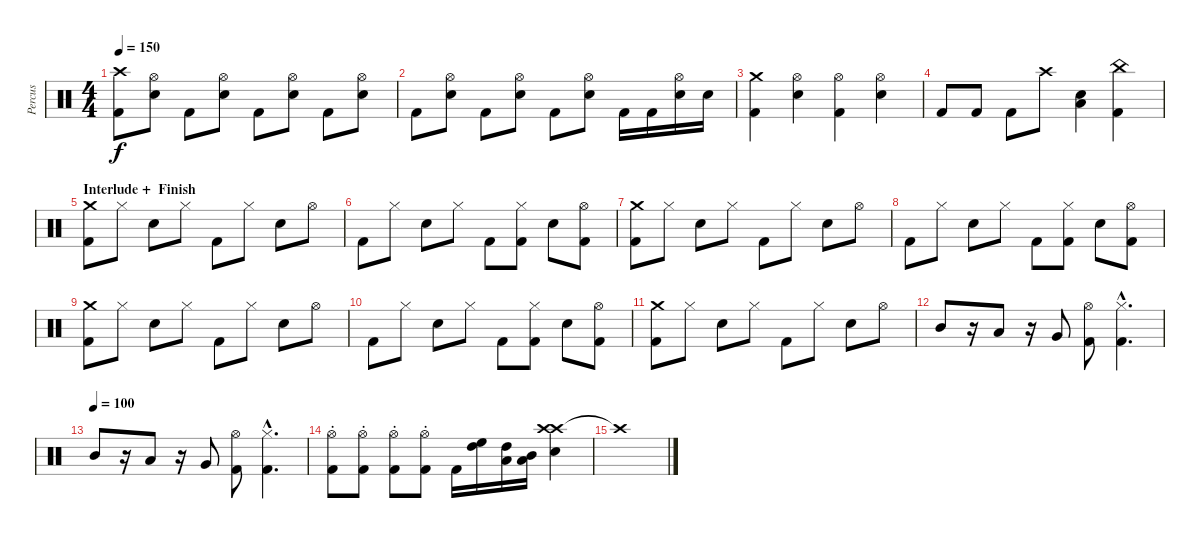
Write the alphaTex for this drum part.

\track ("Percus" "Percus") {instrument percussion}
\staff {score}
\articulation defaults
\ts (4 4)
\tempo 150
\clef neutral
\ks c
("Crash high (hit)" "Kick (hit) 2").8{dy f} ("Hi-Hat (open)" "Snare (hit) 2").8 "Kick (hit) 2".8 ("Hi-Hat (open)" "Snare (hit) 2").8 "Kick (hit) 2".8 ("Hi-Hat (open)" "Snare (hit) 2").8 "Kick (hit) 2".8 ("Hi-Hat (open)" "Snare (hit) 2").8 |
"Kick (hit) 2".8 ("Hi-Hat (open)" "Snare (hit) 2").8 "Kick (hit) 2".8 ("Hi-Hat (open)" "Snare (hit) 2").8 "Kick (hit) 2".8 ("Hi-Hat (open)" "Snare (hit) 2").8 "Kick (hit) 2".16 "Kick (hit) 2".16 ("Hi-Hat (open)" "Snare (hit) 2").16 "Snare (hit) 2".16 |
("Crash medium (hit)" "Kick (hit) 2").4 ("Hi-Hat (open)" "Snare (hit) 2").4 ("Hi-Hat (open)" "Kick (hit) 2").4 ("Hi-Hat (open)" "Snare (hit) 2").4 |
"Kick (hit) 2".8 "Kick (hit) 2".8 "Kick (hit) 2".8 "Crash high (hit)".8 ("Snare (hit) 2" "Low Floor Tom (hit)").4 ("Kick (hit) 2" "China (hit)").4 |
\section ("" "Interlude +  Finish")
("Crash medium (hit)" "Kick (hit) 2").8 "Hi-Hat (closed)".8 "Snare (hit) 2".8 "Hi-Hat (closed)".8 "Kick (hit) 2".8 "Hi-Hat (closed)".8 "Snare (hit) 2".8 "Hi-Hat (open)".8 |
"Kick (hit) 2".8 "Hi-Hat (closed)".8 "Snare (hit) 2".8 "Hi-Hat (closed)".8 "Kick (hit) 2".8 ("Hi-Hat (closed)" "Kick (hit) 2").8 "Snare (hit) 2".8 ("Hi-Hat (open)" "Kick (hit) 2").8 |
("Crash medium (hit)" "Kick (hit) 2").8 "Hi-Hat (closed)".8 "Snare (hit) 2".8 "Hi-Hat (closed)".8 "Kick (hit) 2".8 "Hi-Hat (closed)".8 "Snare (hit) 2".8 "Hi-Hat (open)".8 |
"Kick (hit) 2".8 "Hi-Hat (closed)".8 "Snare (hit) 2".8 "Hi-Hat (closed)".8 "Kick (hit) 2".8 ("Hi-Hat (closed)" "Kick (hit) 2").8 "Snare (hit) 2".8 ("Hi-Hat (open)" "Kick (hit) 2").8 |
("Crash medium (hit)" "Kick (hit) 2").8 "Hi-Hat (closed)".8 "Snare (hit) 2".8 "Hi-Hat (closed)".8 "Kick (hit) 2".8 "Hi-Hat (closed)".8 "Snare (hit) 2".8 "Hi-Hat (open)".8 |
"Kick (hit) 2".8 "Hi-Hat (closed)".8 "Snare (hit) 2".8 "Hi-Hat (closed)".8 "Kick (hit) 2".8 ("Hi-Hat (closed)" "Kick (hit) 2").8 "Snare (hit) 2".8 ("Hi-Hat (open)" "Kick (hit) 2").8 |
("Crash medium (hit)" "Kick (hit) 2").8 "Hi-Hat (closed)".8 "Snare (hit) 2".8 "Hi-Hat (closed)".8 "Kick (hit) 2".8 "Hi-Hat (closed)".8 "Snare (hit) 2".8 "Hi-Hat (open)".8 |
"Mid Tom (hit)".8 r.16 "Low Tom (hit)".8 r.16 "Very Low Tom (hit)".8 ("Hi-Hat (open)" "Kick (hit) 2").8 ("Hi-Hat (closed)"{hac} "Kick (hit) 2"{hac}).4{d} |
\tempo (100)
"Mid Tom (hit)".8 r.16 "Low Tom (hit)".8 r.16 "Very Low Tom (hit)".8 ("Hi-Hat (open)" "Kick (hit) 2").8 ("Hi-Hat (closed)"{hac} "Kick (hit) 2"{hac}).4{d} |
("Hi-Hat (open)"{st} "Kick (hit) 2"{st}).8 ("Hi-Hat (open)"{st} "Kick (hit) 2"{st}).8 ("Hi-Hat (open)"{st} "Kick (hit) 2"{st}).8 ("Hi-Hat (open)"{st} "Kick (hit) 2"{st}).8 "Kick (hit) 2".16 ("High Floor Tom (hit)" "High Tom (hit)").16 ("High Tom (hit)" "Low Tom (hit)").16 ("Mid Tom (hit)" "Low Tom (hit)").16 ("Crash high (hit)" "Crash high (hit)" "Electric Snare (hit)").4 |
"Crash high (hit)"{t}.1
